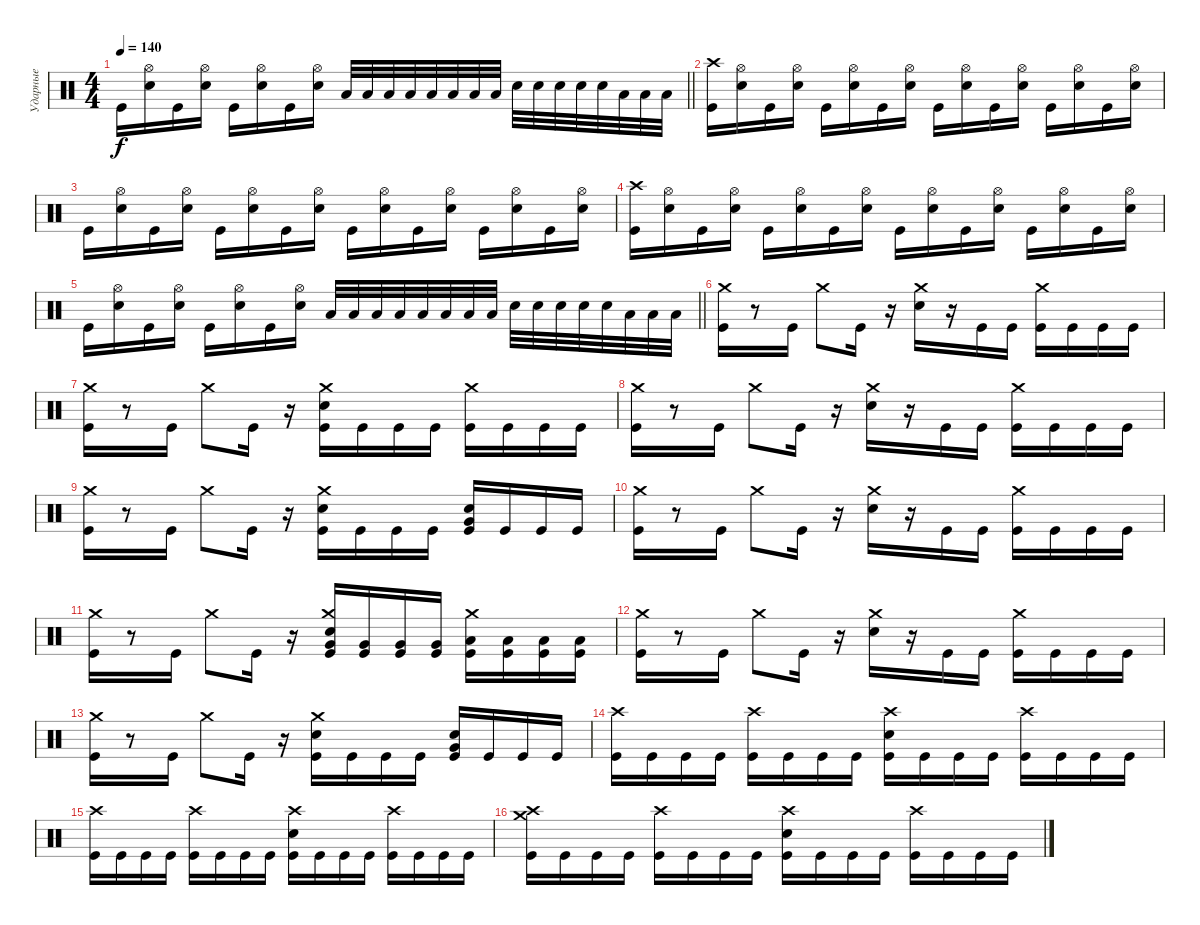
\track ("Ударные" "Ударные") {instrument percussion}
\staff {score}
\articulation defaults
\ts (4 4)
\tempo 140
\clef neutral
\barLineRight lightlight
\ks c "Kick (hit)".16{dy f}
("Snare (hit) 2" "Hi-Hat (open)").16 "Kick (hit)".16 ("Snare (hit) 2" "Hi-Hat (open)").16 "Kick (hit)".16 ("Snare (hit) 2" "Hi-Hat (open)").16 "Kick (hit)".16 ("Snare (hit) 2" "Hi-Hat (open)").16 "Low Tom (hit)".32 "Low Tom (hit)".32 "Low Tom (hit)".32 "Low Tom (hit)".32 "Low Tom (hit)".32 "Low Tom (hit)".32 "Low Tom (hit)".32 "Low Tom (hit)".32 "Snare (hit) 2".32 "Snare (hit) 2".32 "Snare (hit) 2".32 "Snare (hit) 2".32 "Snare (hit) 2".32 "Low Tom (hit)".32 "Low Tom (hit)".32 "Low Tom (hit)".32 |
("Kick (hit)" "Crash high (hit)").16 ("Snare (hit) 2" "Hi-Hat (open)").16 "Kick (hit)".16 ("Snare (hit) 2" "Hi-Hat (open)").16 "Kick (hit)".16 ("Snare (hit) 2" "Hi-Hat (open)").16 "Kick (hit)".16 ("Snare (hit) 2" "Hi-Hat (open)").16 "Kick (hit)".16 ("Snare (hit) 2" "Hi-Hat (open)").16 "Kick (hit)".16 ("Snare (hit) 2" "Hi-Hat (open)").16 "Kick (hit)".16 ("Snare (hit) 2" "Hi-Hat (open)").16 "Kick (hit)".16 ("Snare (hit) 2" "Hi-Hat (open)").16 |
"Kick (hit)".16 ("Snare (hit) 2" "Hi-Hat (open)").16 "Kick (hit)".16 ("Snare (hit) 2" "Hi-Hat (open)").16 "Kick (hit)".16 ("Snare (hit) 2" "Hi-Hat (open)").16 "Kick (hit)".16 ("Snare (hit) 2" "Hi-Hat (open)").16 "Kick (hit)".16 ("Snare (hit) 2" "Hi-Hat (open)").16 "Kick (hit)".16 ("Snare (hit) 2" "Hi-Hat (open)").16 "Kick (hit)".16 ("Snare (hit) 2" "Hi-Hat (open)").16 "Kick (hit)".16 ("Snare (hit) 2" "Hi-Hat (open)").16 |
("Kick (hit)" "Crash high (hit)").16 ("Snare (hit) 2" "Hi-Hat (open)").16 "Kick (hit)".16 ("Snare (hit) 2" "Hi-Hat (open)").16 "Kick (hit)".16 ("Snare (hit) 2" "Hi-Hat (open)").16 "Kick (hit)".16 ("Snare (hit) 2" "Hi-Hat (open)").16 "Kick (hit)".16 ("Snare (hit) 2" "Hi-Hat (open)").16 "Kick (hit)".16 ("Snare (hit) 2" "Hi-Hat (open)").16 "Kick (hit)".16 ("Snare (hit) 2" "Hi-Hat (open)").16 "Kick (hit)".16 ("Snare (hit) 2" "Hi-Hat (open)").16 |
\barLineRight lightlight "Kick (hit)".16
("Snare (hit) 2" "Hi-Hat (open)").16 "Kick (hit)".16 ("Snare (hit) 2" "Hi-Hat (open)").16 "Kick (hit)".16 ("Snare (hit) 2" "Hi-Hat (open)").16 "Kick (hit)".16 ("Snare (hit) 2" "Hi-Hat (open)").16 "Low Tom (hit)".32 "Low Tom (hit)".32 "Low Tom (hit)".32 "Low Tom (hit)".32 "Low Tom (hit)".32 "Low Tom (hit)".32 "Low Tom (hit)".32 "Low Tom (hit)".32 "Snare (hit) 2".32 "Snare (hit) 2".32 "Snare (hit) 2".32 "Snare (hit) 2".32 "Snare (hit) 2".32 "Low Tom (hit)".32 "Low Tom (hit)".32 "Low Tom (hit)".32 |
("Kick (hit)" "Crash medium (hit)").16 r.8 "Kick (hit)".16 "Crash medium (hit)".8 "Kick (hit)".16 r.16 ("Crash medium (hit)" "Snare (hit) 2").16 r.16 "Kick (hit)".16 "Kick (hit)".16 ("Kick (hit)" "Crash medium (hit)").16 "Kick (hit)".16 "Kick (hit)".16 "Kick (hit)".16 |
("Kick (hit)" "Crash medium (hit)").16 r.8 "Kick (hit)".16 "Crash medium (hit)".8 "Kick (hit)".16 r.16 ("Kick (hit)" "Crash medium (hit)" "Snare (hit) 2").16 "Kick (hit)".16 "Kick (hit)".16 "Kick (hit)".16 ("Kick (hit)" "Crash medium (hit)").16 "Kick (hit)".16 "Kick (hit)".16 "Kick (hit)".16 |
("Kick (hit)" "Crash medium (hit)").16 r.8 "Kick (hit)".16 "Crash medium (hit)".8 "Kick (hit)".16 r.16 ("Crash medium (hit)" "Snare (hit) 2").16 r.16 "Kick (hit)".16 "Kick (hit)".16 ("Kick (hit)" "Crash medium (hit)").16 "Kick (hit)".16 "Kick (hit)".16 "Kick (hit)".16 |
("Kick (hit)" "Crash medium (hit)").16 r.8 "Kick (hit)".16 "Crash medium (hit)".8 "Kick (hit)".16 r.16 ("Kick (hit)" "Crash medium (hit)" "Snare (hit) 2").16 "Kick (hit)".16 "Kick (hit)".16 "Kick (hit)".16 ("Kick (hit)" "Snare (hit) 2" "Very Low Tom (hit)").16 "Kick (hit)".16 "Kick (hit)".16 "Kick (hit)".16 |
("Kick (hit)" "Crash medium (hit)").16 r.8 "Kick (hit)".16 "Crash medium (hit)".8 "Kick (hit)".16 r.16 ("Crash medium (hit)" "Snare (hit) 2").16 r.16 "Kick (hit)".16 "Kick (hit)".16 ("Kick (hit)" "Crash medium (hit)").16 "Kick (hit)".16 "Kick (hit)".16 "Kick (hit)".16 |
("Kick (hit)" "Crash medium (hit)").16 r.8 "Kick (hit)".16 "Crash medium (hit)".8 "Kick (hit)".16 r.16 ("Kick (hit)" "Crash medium (hit)" "Snare (hit) 2" "Very Low Tom (hit)").16 ("Kick (hit)" "Very Low Tom (hit)").16 ("Kick (hit)" "Very Low Tom (hit)").16 ("Kick (hit)" "Very Low Tom (hit)").16 ("Kick (hit)" "Crash medium (hit)" "Low Tom (hit)").16 ("Kick (hit)" "Low Tom (hit)").16 ("Kick (hit)" "Low Tom (hit)").16 ("Kick (hit)" "Low Tom (hit)").16 |
("Kick (hit)" "Crash medium (hit)").16 r.8 "Kick (hit)".16 "Crash medium (hit)".8 "Kick (hit)".16 r.16 ("Crash medium (hit)" "Snare (hit) 2").16 r.16 "Kick (hit)".16 "Kick (hit)".16 ("Kick (hit)" "Crash medium (hit)").16 "Kick (hit)".16 "Kick (hit)".16 "Kick (hit)".16 |
("Kick (hit)" "Crash medium (hit)").16 r.8 "Kick (hit)".16 "Crash medium (hit)".8 "Kick (hit)".16 r.16 ("Kick (hit)" "Crash medium (hit)" "Snare (hit) 2").16 "Kick (hit)".16 "Kick (hit)".16 "Kick (hit)".16 ("Kick (hit)" "Snare (hit) 2" "Very Low Tom (hit)").16 "Kick (hit)".16 "Kick (hit)".16 "Kick (hit)".16 |
("Kick (hit)" "Crash high (hit)").16 "Kick (hit)".16 "Kick (hit)".16 "Kick (hit)".16 ("Kick (hit)" "Crash high (hit)").16 "Kick (hit)".16 "Kick (hit)".16 "Kick (hit)".16 ("Kick (hit)" "Snare (hit) 2" "Crash high (hit)").16 "Kick (hit)".16 "Kick (hit)".16 "Kick (hit)".16 ("Kick (hit)" "Crash high (hit)").16 "Kick (hit)".16 "Kick (hit)".16 "Kick (hit)".16 |
("Kick (hit)" "Crash high (hit)").16 "Kick (hit)".16 "Kick (hit)".16 "Kick (hit)".16 ("Kick (hit)" "Crash high (hit)").16 "Kick (hit)".16 "Kick (hit)".16 "Kick (hit)".16 ("Kick (hit)" "Snare (hit) 2" "Crash high (hit)").16 "Kick (hit)".16 "Kick (hit)".16 "Kick (hit)".16 ("Kick (hit)" "Crash high (hit)").16 "Kick (hit)".16 "Kick (hit)".16 "Kick (hit)".16 |
("Kick (hit)" "Crash medium (hit)" "Crash high (hit)").16 "Kick (hit)".16 "Kick (hit)".16 "Kick (hit)".16 ("Kick (hit)" "Crash high (hit)").16 "Kick (hit)".16 "Kick (hit)".16 "Kick (hit)".16 ("Kick (hit)" "Snare (hit) 2" "Crash high (hit)").16 "Kick (hit)".16 "Kick (hit)".16 "Kick (hit)".16 ("Kick (hit)" "Crash high (hit)").16 "Kick (hit)".16 "Kick (hit)".16 "Kick (hit)".16
